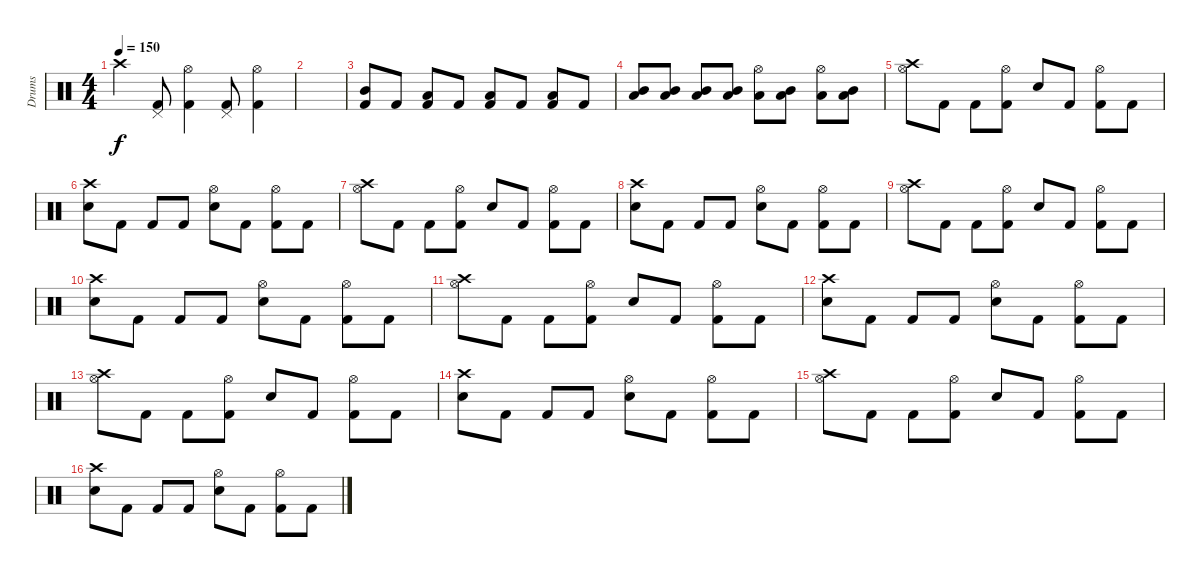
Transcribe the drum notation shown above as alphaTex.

\track ("Drums" "Drums") {instrument percussion}
\staff {score}
\articulation defaults
\ts (4 4)
\tempo 150
\clef neutral
\ks c "Crash high (hit)".4{dy f}
("Kick (hit) 2" "Pedal Hi-Hat (hit)").8 ("Kick (hit) 2" "Hi-Hat (open)").4 ("Kick (hit) 2" "Pedal Hi-Hat (hit)").8 ("Kick (hit) 2" "Hi-Hat (open)").4 |
|
("Mid Tom (hit)" "Kick (hit) 2").8 "Kick (hit) 2".8 ("Low Tom (hit)" "Kick (hit) 2").8 "Kick (hit) 2".8 ("Low Tom (hit)" "Kick (hit) 2").8 "Kick (hit) 2".8 ("Low Tom (hit)" "Kick (hit) 2").8 "Kick (hit) 2".8 |
("Low Tom (hit)" "Mid Tom (hit)").8 ("Low Tom (hit)" "Mid Tom (hit)").8 ("Low Tom (hit)" "Mid Tom (hit)").8 ("Low Tom (hit)" "Mid Tom (hit)").8 ("Low Tom (hit)" "Hi-Hat (open)").8 ("Low Tom (hit)" "Mid Tom (hit)").8 ("Low Tom (hit)" "Hi-Hat (open)").8 ("Low Tom (hit)" "Mid Tom (hit)").8 |
("Hi-Hat (open)" "Crash high (hit)").8 "Kick (hit) 2".8 "Kick (hit) 2".8 ("Hi-Hat (open)" "Kick (hit) 2").8 "Snare (hit) 2".8 "Kick (hit) 2".8 ("Hi-Hat (open)" "Kick (hit) 2").8 "Kick (hit) 2".8 |
("Snare (hit) 2" "Crash high (hit)").8 "Kick (hit) 2".8 "Kick (hit) 2".8 "Kick (hit) 2".8 ("Hi-Hat (open)" "Snare (hit) 2").8 "Kick (hit) 2".8 ("Hi-Hat (open)" "Kick (hit) 2").8 "Kick (hit) 2".8 |
("Hi-Hat (open)" "Crash high (hit)").8 "Kick (hit) 2".8 "Kick (hit) 2".8 ("Hi-Hat (open)" "Kick (hit) 2").8 "Snare (hit) 2".8 "Kick (hit) 2".8 ("Hi-Hat (open)" "Kick (hit) 2").8 "Kick (hit) 2".8 |
("Snare (hit) 2" "Crash high (hit)").8 "Kick (hit) 2".8 "Kick (hit) 2".8 "Kick (hit) 2".8 ("Hi-Hat (open)" "Snare (hit) 2").8 "Kick (hit) 2".8 ("Hi-Hat (open)" "Kick (hit) 2").8 "Kick (hit) 2".8 |
("Hi-Hat (open)" "Crash high (hit)").8 "Kick (hit) 2".8 "Kick (hit) 2".8 ("Hi-Hat (open)" "Kick (hit) 2").8 "Snare (hit) 2".8 "Kick (hit) 2".8 ("Hi-Hat (open)" "Kick (hit) 2").8 "Kick (hit) 2".8 |
("Snare (hit) 2" "Crash high (hit)").8 "Kick (hit) 2".8 "Kick (hit) 2".8 "Kick (hit) 2".8 ("Hi-Hat (open)" "Snare (hit) 2").8 "Kick (hit) 2".8 ("Hi-Hat (open)" "Kick (hit) 2").8 "Kick (hit) 2".8 |
("Hi-Hat (open)" "Crash high (hit)").8 "Kick (hit) 2".8 "Kick (hit) 2".8 ("Hi-Hat (open)" "Kick (hit) 2").8 "Snare (hit) 2".8 "Kick (hit) 2".8 ("Hi-Hat (open)" "Kick (hit) 2").8 "Kick (hit) 2".8 |
("Snare (hit) 2" "Crash high (hit)").8 "Kick (hit) 2".8 "Kick (hit) 2".8 "Kick (hit) 2".8 ("Hi-Hat (open)" "Snare (hit) 2").8 "Kick (hit) 2".8 ("Hi-Hat (open)" "Kick (hit) 2").8 "Kick (hit) 2".8 |
("Hi-Hat (open)" "Crash high (hit)").8 "Kick (hit) 2".8 "Kick (hit) 2".8 ("Hi-Hat (open)" "Kick (hit) 2").8 "Snare (hit) 2".8 "Kick (hit) 2".8 ("Hi-Hat (open)" "Kick (hit) 2").8 "Kick (hit) 2".8 |
("Snare (hit) 2" "Crash high (hit)").8 "Kick (hit) 2".8 "Kick (hit) 2".8 "Kick (hit) 2".8 ("Hi-Hat (open)" "Snare (hit) 2").8 "Kick (hit) 2".8 ("Hi-Hat (open)" "Kick (hit) 2").8 "Kick (hit) 2".8 |
("Hi-Hat (open)" "Crash high (hit)").8 "Kick (hit) 2".8 "Kick (hit) 2".8 ("Hi-Hat (open)" "Kick (hit) 2").8 "Snare (hit) 2".8 "Kick (hit) 2".8 ("Hi-Hat (open)" "Kick (hit) 2").8 "Kick (hit) 2".8 |
("Snare (hit) 2" "Crash high (hit)").8 "Kick (hit) 2".8 "Kick (hit) 2".8 "Kick (hit) 2".8 ("Hi-Hat (open)" "Snare (hit) 2").8 "Kick (hit) 2".8 ("Hi-Hat (open)" "Kick (hit) 2").8 "Kick (hit) 2".8
